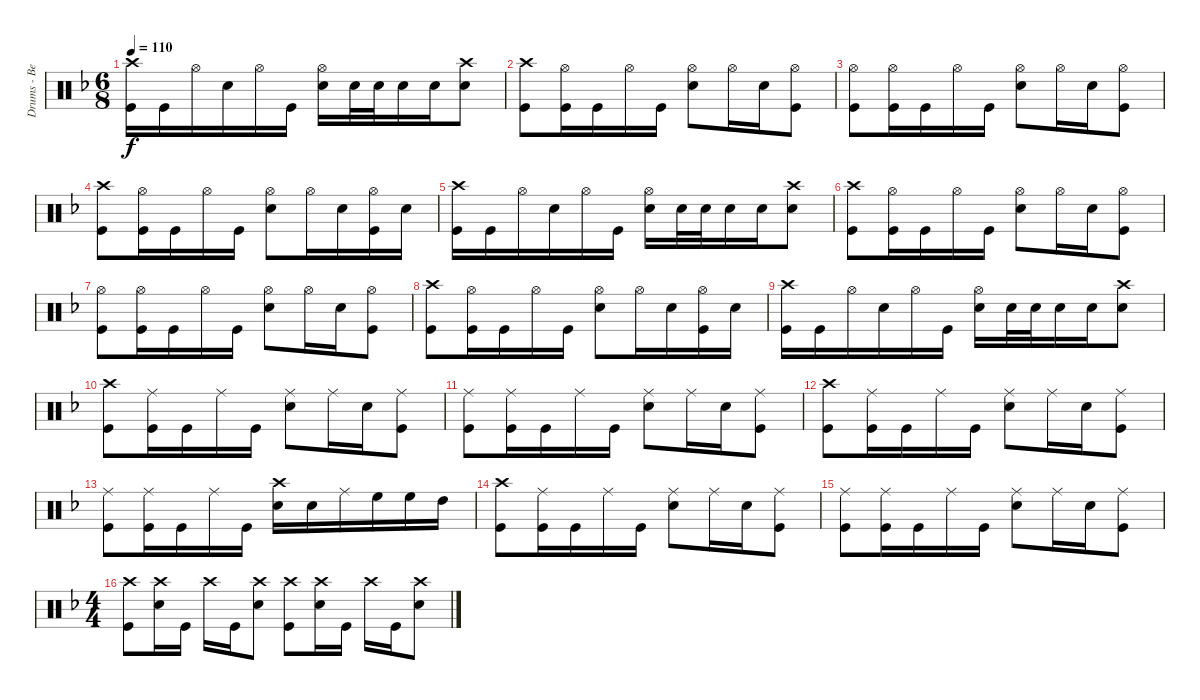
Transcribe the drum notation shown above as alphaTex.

\track ("Drums - Ben Johnston" "Drums - Be") {instrument percussion}
\staff {score}
\articulation defaults
\ts (6 8)
\tempo 110
\clef neutral
\ks dminor
("Crash high (hit)" "Kick (hit)").16{dy f} "Kick (hit)".16 "Hi-Hat (open)".16 "Snare (hit) 2".16 "Hi-Hat (open)".16 "Kick (hit)".16 ("Hi-Hat (open)" "Snare (hit) 2").16 "Snare (hit) 2".32 "Snare (hit) 2".32 "Snare (hit) 2".16 "Snare (hit) 2".16 ("Crash high (hit)" "Snare (hit) 2").8 |
("Crash high (hit)" "Kick (hit)").8 ("Hi-Hat (open)" "Kick (hit)").16 "Kick (hit)".16 "Hi-Hat (open)".16 "Kick (hit)".16 ("Hi-Hat (open)" "Snare (hit) 2").8 "Hi-Hat (open)".16 "Snare (hit) 2".16 ("Hi-Hat (open)" "Kick (hit)").8 |
("Hi-Hat (open)" "Kick (hit)").8 ("Hi-Hat (open)" "Kick (hit)").16 "Kick (hit)".16 "Hi-Hat (open)".16 "Kick (hit)".16 ("Hi-Hat (open)" "Snare (hit) 2").8 "Hi-Hat (open)".16 "Snare (hit) 2".16 ("Hi-Hat (open)" "Kick (hit)").8 |
("Crash high (hit)" "Kick (hit)").8 ("Hi-Hat (open)" "Kick (hit)").16 "Kick (hit)".16 "Hi-Hat (open)".16 "Kick (hit)".16 ("Hi-Hat (open)" "Snare (hit) 2").8 "Hi-Hat (open)".16 "Snare (hit) 2".16 ("Hi-Hat (open)" "Kick (hit)").16 "Snare (hit) 2".16 |
("Crash high (hit)" "Kick (hit)").16 "Kick (hit)".16 "Hi-Hat (open)".16 "Snare (hit) 2".16 "Hi-Hat (open)".16 "Kick (hit)".16 ("Hi-Hat (open)" "Snare (hit) 2").16 "Snare (hit) 2".32 "Snare (hit) 2".32 "Snare (hit) 2".16 "Snare (hit) 2".16 ("Crash high (hit)" "Snare (hit) 2").8 |
("Crash high (hit)" "Kick (hit)").8 ("Hi-Hat (open)" "Kick (hit)").16 "Kick (hit)".16 "Hi-Hat (open)".16 "Kick (hit)".16 ("Hi-Hat (open)" "Snare (hit) 2").8 "Hi-Hat (open)".16 "Snare (hit) 2".16 ("Hi-Hat (open)" "Kick (hit)").8 |
("Hi-Hat (open)" "Kick (hit)").8 ("Hi-Hat (open)" "Kick (hit)").16 "Kick (hit)".16 "Hi-Hat (open)".16 "Kick (hit)".16 ("Hi-Hat (open)" "Snare (hit) 2").8 "Hi-Hat (open)".16 "Snare (hit) 2".16 ("Hi-Hat (open)" "Kick (hit)").8 |
("Crash high (hit)" "Kick (hit)").8 ("Hi-Hat (open)" "Kick (hit)").16 "Kick (hit)".16 "Hi-Hat (open)".16 "Kick (hit)".16 ("Hi-Hat (open)" "Snare (hit) 2").8 "Hi-Hat (open)".16 "Snare (hit) 2".16 ("Hi-Hat (open)" "Kick (hit)").16 "Snare (hit) 2".16 |
("Crash high (hit)" "Kick (hit)").16 "Kick (hit)".16 "Hi-Hat (open)".16 "Snare (hit) 2".16 "Hi-Hat (open)".16 "Kick (hit)".16 ("Hi-Hat (open)" "Snare (hit) 2").16 "Snare (hit) 2".32 "Snare (hit) 2".32 "Snare (hit) 2".16 "Snare (hit) 2".16 ("Crash high (hit)" "Snare (hit) 2").8 |
("Crash high (hit)" "Kick (hit)").8 ("Ride (middle)" "Kick (hit)").16 "Kick (hit)".16 "Ride (middle)".16 "Kick (hit)".16 ("Ride (middle)" "Snare (hit) 2").8 "Ride (middle)".16 "Snare (hit) 2".16 ("Ride (middle)" "Kick (hit)").8 |
("Ride (middle)" "Kick (hit)").8 ("Ride (middle)" "Kick (hit)").16 "Kick (hit)".16 "Ride (middle)".16 "Kick (hit)".16 ("Ride (middle)" "Snare (hit) 2").8 "Ride (middle)".16 "Snare (hit) 2".16 ("Ride (middle)" "Kick (hit)").8 |
("Crash high (hit)" "Kick (hit)").8 ("Ride (middle)" "Kick (hit)").16 "Kick (hit)".16 "Ride (middle)".16 "Kick (hit)".16 ("Ride (middle)" "Snare (hit) 2").8 "Ride (middle)".16 "Snare (hit) 2".16 ("Ride (middle)" "Kick (hit)").8 |
("Ride (middle)" "Kick (hit)").8 ("Ride (middle)" "Kick (hit)").16 "Kick (hit)".16 "Ride (middle)".16 "Kick (hit)".16 ("Crash high (hit)" "Snare (hit) 2").16 "Snare (hit) 2".16 "Ride (middle)".16 "High Floor Tom (hit)".16 "High Floor Tom (hit)".16 "High Tom (hit)".16 |
("Crash high (hit)" "Kick (hit)").8 ("Ride (middle)" "Kick (hit)").16 "Kick (hit)".16 "Ride (middle)".16 "Kick (hit)".16 ("Ride (middle)" "Snare (hit) 2").8 "Ride (middle)".16 "Snare (hit) 2".16 ("Ride (middle)" "Kick (hit)").8 |
("Ride (middle)" "Kick (hit)").8 ("Ride (middle)" "Kick (hit)").16 "Kick (hit)".16 "Ride (middle)".16 "Kick (hit)".16 ("Ride (middle)" "Snare (hit) 2").8 "Ride (middle)".16 "Snare (hit) 2".16 ("Ride (middle)" "Kick (hit)").8 |
\ts (4 4)
("Crash high (hit)" "Kick (hit)").8 ("Crash high (hit)" "Snare (hit) 2").16 "Kick (hit)".16 "Crash high (hit)".16 "Kick (hit)".16 ("Crash high (hit)" "Snare (hit) 2").8 ("Crash high (hit)" "Kick (hit)").8 ("Crash high (hit)" "Snare (hit) 2").16 "Kick (hit)".16 "Crash high (hit)".16 "Kick (hit)".16 ("Crash high (hit)" "Snare (hit) 2").8
